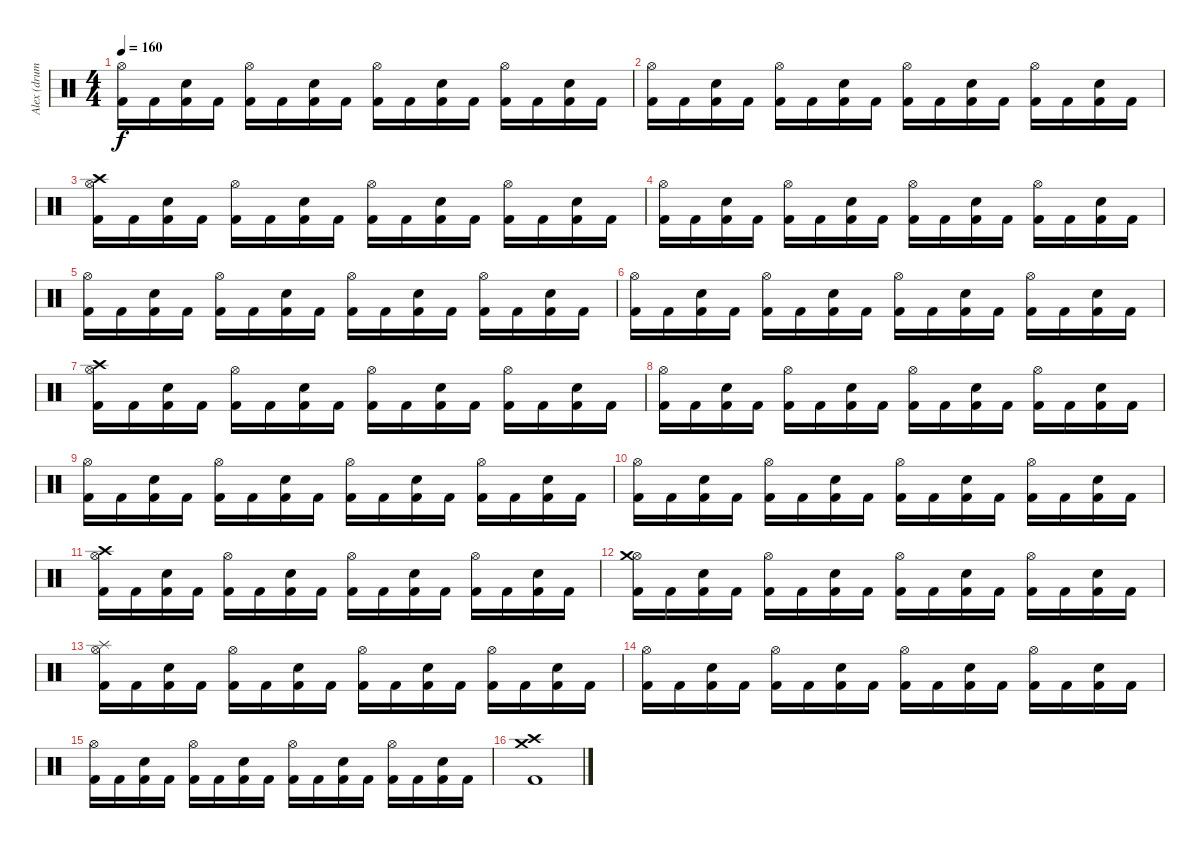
\track ("Alex (drums)" "Alex (drum") {instrument percussion}
\staff {score}
\articulation defaults
\ts (4 4)
\tempo 160
\clef neutral
\ks c
("Hi-Hat (open)" "Kick (hit) 2").16{dy f} "Kick (hit) 2".16 ("Snare (hit) 2" "Kick (hit) 2").16 "Kick (hit) 2".16 ("Hi-Hat (open)" "Kick (hit) 2").16 "Kick (hit) 2".16 ("Snare (hit) 2" "Kick (hit) 2").16 "Kick (hit) 2".16 ("Hi-Hat (open)" "Kick (hit) 2").16 "Kick (hit) 2".16 ("Snare (hit) 2" "Kick (hit) 2").16 "Kick (hit) 2".16 ("Hi-Hat (open)" "Kick (hit) 2").16 "Kick (hit) 2".16 ("Snare (hit) 2" "Kick (hit) 2").16 "Kick (hit) 2".16 |
("Hi-Hat (open)" "Kick (hit) 2").16 "Kick (hit) 2".16 ("Snare (hit) 2" "Kick (hit) 2").16 "Kick (hit) 2".16 ("Hi-Hat (open)" "Kick (hit) 2").16 "Kick (hit) 2".16 ("Snare (hit) 2" "Kick (hit) 2").16 "Kick (hit) 2".16 ("Hi-Hat (open)" "Kick (hit) 2").16 "Kick (hit) 2".16 ("Snare (hit) 2" "Kick (hit) 2").16 "Kick (hit) 2".16 ("Hi-Hat (open)" "Kick (hit) 2").16 "Kick (hit) 2".16 ("Snare (hit) 2" "Kick (hit) 2").16 "Kick (hit) 2".16 |
("Hi-Hat (open)" "Kick (hit) 2" "Crash high (hit)").16 "Kick (hit) 2".16 ("Snare (hit) 2" "Kick (hit) 2").16 "Kick (hit) 2".16 ("Hi-Hat (open)" "Kick (hit) 2").16 "Kick (hit) 2".16 ("Snare (hit) 2" "Kick (hit) 2").16 "Kick (hit) 2".16 ("Hi-Hat (open)" "Kick (hit) 2").16 "Kick (hit) 2".16 ("Snare (hit) 2" "Kick (hit) 2").16 "Kick (hit) 2".16 ("Hi-Hat (open)" "Kick (hit) 2").16 "Kick (hit) 2".16 ("Snare (hit) 2" "Kick (hit) 2").16 "Kick (hit) 2".16 |
("Hi-Hat (open)" "Kick (hit) 2").16 "Kick (hit) 2".16 ("Snare (hit) 2" "Kick (hit) 2").16 "Kick (hit) 2".16 ("Hi-Hat (open)" "Kick (hit) 2").16 "Kick (hit) 2".16 ("Snare (hit) 2" "Kick (hit) 2").16 "Kick (hit) 2".16 ("Hi-Hat (open)" "Kick (hit) 2").16 "Kick (hit) 2".16 ("Snare (hit) 2" "Kick (hit) 2").16 "Kick (hit) 2".16 ("Hi-Hat (open)" "Kick (hit) 2").16 "Kick (hit) 2".16 ("Snare (hit) 2" "Kick (hit) 2").16 "Kick (hit) 2".16 |
("Hi-Hat (open)" "Kick (hit) 2").16 "Kick (hit) 2".16 ("Snare (hit) 2" "Kick (hit) 2").16 "Kick (hit) 2".16 ("Hi-Hat (open)" "Kick (hit) 2").16 "Kick (hit) 2".16 ("Snare (hit) 2" "Kick (hit) 2").16 "Kick (hit) 2".16 ("Hi-Hat (open)" "Kick (hit) 2").16 "Kick (hit) 2".16 ("Snare (hit) 2" "Kick (hit) 2").16 "Kick (hit) 2".16 ("Hi-Hat (open)" "Kick (hit) 2").16 "Kick (hit) 2".16 ("Snare (hit) 2" "Kick (hit) 2").16 "Kick (hit) 2".16 |
("Hi-Hat (open)" "Kick (hit) 2").16 "Kick (hit) 2".16 ("Snare (hit) 2" "Kick (hit) 2").16 "Kick (hit) 2".16 ("Hi-Hat (open)" "Kick (hit) 2").16 "Kick (hit) 2".16 ("Snare (hit) 2" "Kick (hit) 2").16 "Kick (hit) 2".16 ("Hi-Hat (open)" "Kick (hit) 2").16 "Kick (hit) 2".16 ("Snare (hit) 2" "Kick (hit) 2").16 "Kick (hit) 2".16 ("Hi-Hat (open)" "Kick (hit) 2").16 "Kick (hit) 2".16 ("Snare (hit) 2" "Kick (hit) 2").16 "Kick (hit) 2".16 |
("Hi-Hat (open)" "Kick (hit) 2" "Crash high (hit)").16 "Kick (hit) 2".16 ("Snare (hit) 2" "Kick (hit) 2").16 "Kick (hit) 2".16 ("Hi-Hat (open)" "Kick (hit) 2").16 "Kick (hit) 2".16 ("Snare (hit) 2" "Kick (hit) 2").16 "Kick (hit) 2".16 ("Hi-Hat (open)" "Kick (hit) 2").16 "Kick (hit) 2".16 ("Snare (hit) 2" "Kick (hit) 2").16 "Kick (hit) 2".16 ("Hi-Hat (open)" "Kick (hit) 2").16 "Kick (hit) 2".16 ("Snare (hit) 2" "Kick (hit) 2").16 "Kick (hit) 2".16 |
("Hi-Hat (open)" "Kick (hit) 2").16 "Kick (hit) 2".16 ("Snare (hit) 2" "Kick (hit) 2").16 "Kick (hit) 2".16 ("Hi-Hat (open)" "Kick (hit) 2").16 "Kick (hit) 2".16 ("Snare (hit) 2" "Kick (hit) 2").16 "Kick (hit) 2".16 ("Hi-Hat (open)" "Kick (hit) 2").16 "Kick (hit) 2".16 ("Snare (hit) 2" "Kick (hit) 2").16 "Kick (hit) 2".16 ("Hi-Hat (open)" "Kick (hit) 2").16 "Kick (hit) 2".16 ("Snare (hit) 2" "Kick (hit) 2").16 "Kick (hit) 2".16 |
("Hi-Hat (open)" "Kick (hit) 2").16 "Kick (hit) 2".16 ("Snare (hit) 2" "Kick (hit) 2").16 "Kick (hit) 2".16 ("Hi-Hat (open)" "Kick (hit) 2").16 "Kick (hit) 2".16 ("Snare (hit) 2" "Kick (hit) 2").16 "Kick (hit) 2".16 ("Hi-Hat (open)" "Kick (hit) 2").16 "Kick (hit) 2".16 ("Snare (hit) 2" "Kick (hit) 2").16 "Kick (hit) 2".16 ("Hi-Hat (open)" "Kick (hit) 2").16 "Kick (hit) 2".16 ("Snare (hit) 2" "Kick (hit) 2").16 "Kick (hit) 2".16 |
("Hi-Hat (open)" "Kick (hit) 2").16 "Kick (hit) 2".16 ("Snare (hit) 2" "Kick (hit) 2").16 "Kick (hit) 2".16 ("Hi-Hat (open)" "Kick (hit) 2").16 "Kick (hit) 2".16 ("Snare (hit) 2" "Kick (hit) 2").16 "Kick (hit) 2".16 ("Hi-Hat (open)" "Kick (hit) 2").16 "Kick (hit) 2".16 ("Snare (hit) 2" "Kick (hit) 2").16 "Kick (hit) 2".16 ("Hi-Hat (open)" "Kick (hit) 2").16 "Kick (hit) 2".16 ("Snare (hit) 2" "Kick (hit) 2").16 "Kick (hit) 2".16 |
("Hi-Hat (open)" "Kick (hit) 2" "Crash high (hit)").16 "Kick (hit) 2".16 ("Snare (hit) 2" "Kick (hit) 2").16 "Kick (hit) 2".16 ("Hi-Hat (open)" "Kick (hit) 2").16 "Kick (hit) 2".16 ("Snare (hit) 2" "Kick (hit) 2").16 "Kick (hit) 2".16 ("Hi-Hat (open)" "Kick (hit) 2").16 "Kick (hit) 2".16 ("Snare (hit) 2" "Kick (hit) 2").16 "Kick (hit) 2".16 ("Hi-Hat (open)" "Kick (hit) 2").16 "Kick (hit) 2".16 ("Snare (hit) 2" "Kick (hit) 2").16 "Kick (hit) 2".16 |
("Hi-Hat (open)" "Kick (hit) 2" "Crash medium (hit)").16 "Kick (hit) 2".16 ("Snare (hit) 2" "Kick (hit) 2").16 "Kick (hit) 2".16 ("Hi-Hat (open)" "Kick (hit) 2").16 "Kick (hit) 2".16 ("Snare (hit) 2" "Kick (hit) 2").16 "Kick (hit) 2".16 ("Hi-Hat (open)" "Kick (hit) 2").16 "Kick (hit) 2".16 ("Snare (hit) 2" "Kick (hit) 2").16 "Kick (hit) 2".16 ("Hi-Hat (open)" "Kick (hit) 2").16 "Kick (hit) 2".16 ("Snare (hit) 2" "Kick (hit) 2").16 "Kick (hit) 2".16 |
("Hi-Hat (open)" "Kick (hit) 2" "Splash (hit)").16 "Kick (hit) 2".16 ("Snare (hit) 2" "Kick (hit) 2").16 "Kick (hit) 2".16 ("Hi-Hat (open)" "Kick (hit) 2").16 "Kick (hit) 2".16 ("Snare (hit) 2" "Kick (hit) 2").16 "Kick (hit) 2".16 ("Hi-Hat (open)" "Kick (hit) 2").16 "Kick (hit) 2".16 ("Snare (hit) 2" "Kick (hit) 2").16 "Kick (hit) 2".16 ("Hi-Hat (open)" "Kick (hit) 2").16 "Kick (hit) 2".16 ("Snare (hit) 2" "Kick (hit) 2").16 "Kick (hit) 2".16 |
("Hi-Hat (open)" "Kick (hit) 2").16 "Kick (hit) 2".16 ("Snare (hit) 2" "Kick (hit) 2").16 "Kick (hit) 2".16 ("Hi-Hat (open)" "Kick (hit) 2").16 "Kick (hit) 2".16 ("Snare (hit) 2" "Kick (hit) 2").16 "Kick (hit) 2".16 ("Hi-Hat (open)" "Kick (hit) 2").16 "Kick (hit) 2".16 ("Snare (hit) 2" "Kick (hit) 2").16 "Kick (hit) 2".16 ("Hi-Hat (open)" "Kick (hit) 2").16 "Kick (hit) 2".16 ("Snare (hit) 2" "Kick (hit) 2").16 "Kick (hit) 2".16 |
("Hi-Hat (open)" "Kick (hit) 2").16 "Kick (hit) 2".16 ("Snare (hit) 2" "Kick (hit) 2").16 "Kick (hit) 2".16 ("Hi-Hat (open)" "Kick (hit) 2").16 "Kick (hit) 2".16 ("Snare (hit) 2" "Kick (hit) 2").16 "Kick (hit) 2".16 ("Hi-Hat (open)" "Kick (hit) 2").16 "Kick (hit) 2".16 ("Snare (hit) 2" "Kick (hit) 2").16 "Kick (hit) 2".16 ("Hi-Hat (open)" "Kick (hit) 2").16 "Kick (hit) 2".16 ("Snare (hit) 2" "Kick (hit) 2").16 "Kick (hit) 2".16 |
("Kick (hit) 2" "Crash medium (hit)" "Crash high (hit)").1
